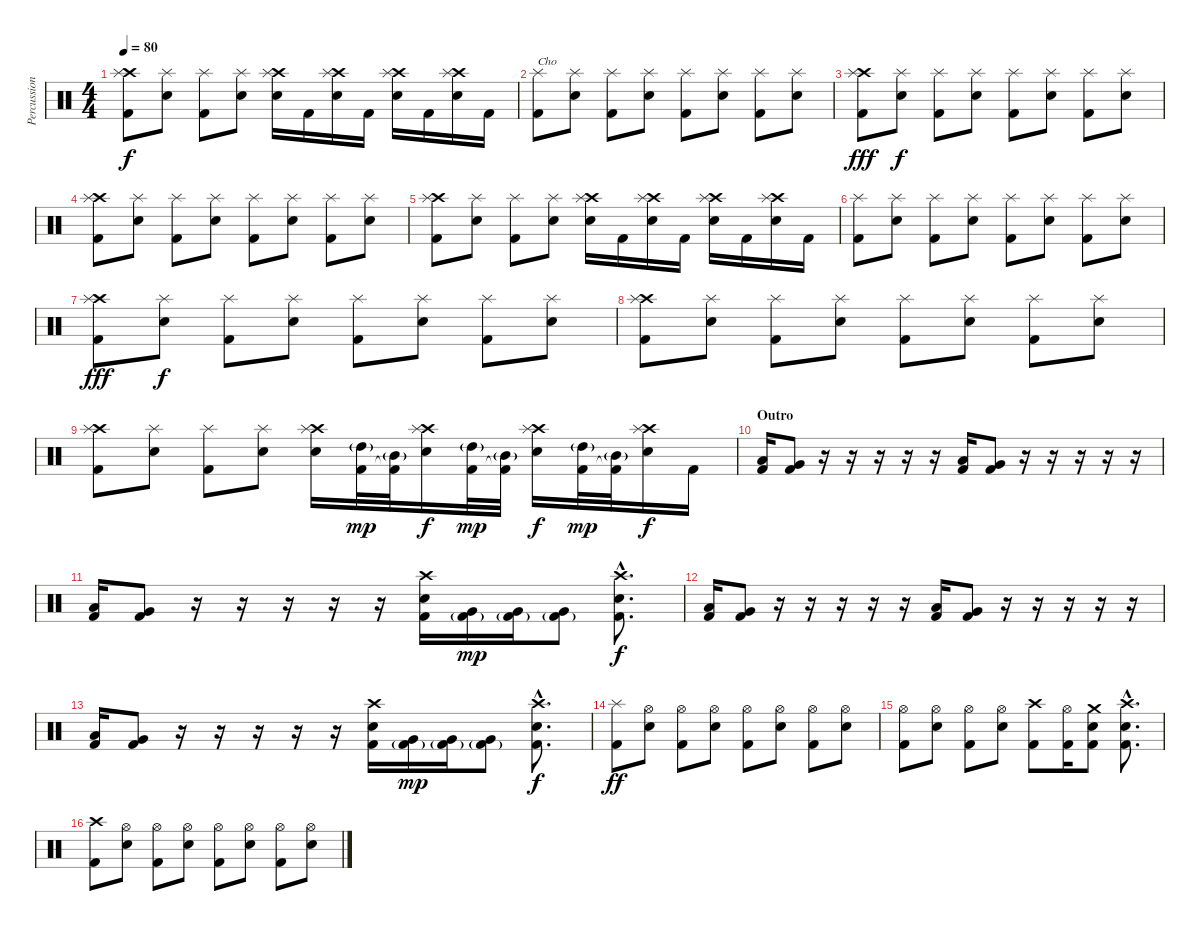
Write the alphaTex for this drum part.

\track ("Percussion" "Percussion") {instrument percussion}
\staff {score}
\articulation defaults
\ts (4 4)
\tempo 80
\clef neutral
\ks c
("Crash high (hit)" "Kick (hit) 2" "Splash (hit)").8{dy f} ("Snare (hit) 2" "Splash (hit)").8 ("Kick (hit) 2" "Splash (hit)").8 ("Snare (hit) 2" "Splash (hit)").8 ("Crash high (hit)" "Snare (hit) 2" "Splash (hit)").16 "Kick (hit) 2".16 ("Crash high (hit)" "Snare (hit) 2" "Splash (hit)").16 "Kick (hit) 2".16 ("Crash high (hit)" "Snare (hit) 2" "Splash (hit)").16 "Kick (hit) 2".16 ("Crash high (hit)" "Snare (hit) 2" "Splash (hit)").16 "Kick (hit) 2".16 |
("Kick (hit) 2" "Splash (hit)").8{txt "Cho"} ("Snare (hit) 2" "Splash (hit)").8 ("Kick (hit) 2" "Splash (hit)").8 ("Snare (hit) 2" "Splash (hit)").8 ("Kick (hit) 2" "Splash (hit)").8 ("Snare (hit) 2" "Splash (hit)").8 ("Kick (hit) 2" "Splash (hit)").8 ("Snare (hit) 2" "Splash (hit)").8 |
("Crash high (hit)" "Kick (hit) 2" "Splash (hit)").8{dy fff} ("Snare (hit) 2" "Splash (hit)").8{dy f} ("Kick (hit) 2" "Splash (hit)").8 ("Snare (hit) 2" "Splash (hit)").8 ("Kick (hit) 2" "Splash (hit)").8 ("Snare (hit) 2" "Splash (hit)").8 ("Kick (hit) 2" "Splash (hit)").8 ("Snare (hit) 2" "Splash (hit)").8 |
("Crash high (hit)" "Kick (hit) 2" "Splash (hit)").8 ("Snare (hit) 2" "Splash (hit)").8 ("Kick (hit) 2" "Splash (hit)").8 ("Snare (hit) 2" "Splash (hit)").8 ("Kick (hit) 2" "Splash (hit)").8 ("Snare (hit) 2" "Splash (hit)").8 ("Kick (hit) 2" "Splash (hit)").8 ("Snare (hit) 2" "Splash (hit)").8 |
("Crash high (hit)" "Kick (hit) 2" "Splash (hit)").8 ("Snare (hit) 2" "Splash (hit)").8 ("Kick (hit) 2" "Splash (hit)").8 ("Snare (hit) 2" "Splash (hit)").8 ("Crash high (hit)" "Snare (hit) 2" "Splash (hit)").16 "Kick (hit) 2".16 ("Crash high (hit)" "Snare (hit) 2" "Splash (hit)").16 "Kick (hit) 2".16 ("Crash high (hit)" "Snare (hit) 2" "Splash (hit)").16 "Kick (hit) 2".16 ("Crash high (hit)" "Snare (hit) 2" "Splash (hit)").16 "Kick (hit) 2".16 |
("Kick (hit) 2" "Splash (hit)").8 ("Snare (hit) 2" "Splash (hit)").8 ("Kick (hit) 2" "Splash (hit)").8 ("Snare (hit) 2" "Splash (hit)").8 ("Kick (hit) 2" "Splash (hit)").8 ("Snare (hit) 2" "Splash (hit)").8 ("Kick (hit) 2" "Splash (hit)").8 ("Snare (hit) 2" "Splash (hit)").8 |
("Crash high (hit)" "Kick (hit) 2" "Splash (hit)").8{dy fff} ("Snare (hit) 2" "Splash (hit)").8{dy f} ("Kick (hit) 2" "Splash (hit)").8 ("Snare (hit) 2" "Splash (hit)").8 ("Kick (hit) 2" "Splash (hit)").8 ("Snare (hit) 2" "Splash (hit)").8 ("Kick (hit) 2" "Splash (hit)").8 ("Snare (hit) 2" "Splash (hit)").8 |
("Crash high (hit)" "Kick (hit) 2" "Splash (hit)").8 ("Snare (hit) 2" "Splash (hit)").8 ("Kick (hit) 2" "Splash (hit)").8 ("Snare (hit) 2" "Splash (hit)").8 ("Kick (hit) 2" "Splash (hit)").8 ("Snare (hit) 2" "Splash (hit)").8 ("Kick (hit) 2" "Splash (hit)").8 ("Snare (hit) 2" "Splash (hit)").8 |
("Crash high (hit)" "Kick (hit) 2" "Splash (hit)").8 ("Snare (hit) 2" "Splash (hit)").8 ("Kick (hit) 2" "Splash (hit)").8 ("Snare (hit) 2" "Splash (hit)").8 ("Crash high (hit)" "Snare (hit) 2" "Splash (hit)").16 ("High Tom (hit)"{g} "Kick (hit) 2").32{dy mp} ("Mid Tom (hit)"{g} "Kick (hit) 2"{t}).32 ("Crash high (hit)" "Snare (hit) 2" "Splash (hit)").16{dy f} ("High Tom (hit)"{g} "Kick (hit) 2").32{dy mp} ("Mid Tom (hit)"{g} "Kick (hit) 2"{t}).32 ("Crash high (hit)" "Snare (hit) 2" "Splash (hit)").16{dy f} ("High Tom (hit)"{g} "Kick (hit) 2").32{dy mp} ("Mid Tom (hit)"{g} "Kick (hit) 2"{t}).32 ("Crash high (hit)" "Snare (hit) 2" "Splash (hit)").16{dy f} "Kick (hit) 2".16 |
\section ("" "Outro")
("Low Tom (hit)" "Kick (hit) 2").16 ("Very Low Tom (hit)" "Kick (hit) 2").8 r.16 r.16 r.16 r.16 r.16 ("Low Tom (hit)" "Kick (hit) 2").16 ("Very Low Tom (hit)" "Kick (hit) 2").8 r.16 r.16 r.16 r.16 r.16 |
("Low Tom (hit)" "Kick (hit) 2").16 ("Very Low Tom (hit)" "Kick (hit) 2").8 r.16 r.16 r.16 r.16 r.16 ("Crash high (hit)" "Snare (hit) 2" "Kick (hit) 2").16 ("Very Low Tom (hit)" "Kick (hit) 2"{g}).16{dy mp} ("Very Low Tom (hit)" "Kick (hit) 2"{g}).16 ("Very Low Tom (hit)" "Kick (hit) 2"{g}).8 ("Crash high (hit)"{hac} "Snare (hit) 2"{hac} "Kick (hit) 2"{hac}).8{d dy f} |
("Low Tom (hit)" "Kick (hit) 2").16 ("Very Low Tom (hit)" "Kick (hit) 2").8 r.16 r.16 r.16 r.16 r.16 ("Low Tom (hit)" "Kick (hit) 2").16 ("Very Low Tom (hit)" "Kick (hit) 2").8 r.16 r.16 r.16 r.16 r.16 |
("Low Tom (hit)" "Kick (hit) 2").16 ("Very Low Tom (hit)" "Kick (hit) 2").8 r.16 r.16 r.16 r.16 r.16 ("Crash high (hit)" "Snare (hit) 2" "Kick (hit) 2").16 ("Very Low Tom (hit)" "Kick (hit) 2"{g}).16{dy mp} ("Very Low Tom (hit)" "Kick (hit) 2"{g}).16 ("Very Low Tom (hit)" "Kick (hit) 2"{g}).8 ("Crash high (hit)"{hac} "Snare (hit) 2"{hac} "Kick (hit) 2"{hac}).8{d dy f} |
("Splash (hit)" "Kick (hit) 2").8{dy ff} ("Hi-Hat (open)" "Snare (hit) 2").8 ("Hi-Hat (open)" "Kick (hit) 2").8 ("Hi-Hat (open)" "Snare (hit) 2").8 ("Hi-Hat (open)" "Kick (hit) 2").8 ("Hi-Hat (open)" "Snare (hit) 2").8 ("Hi-Hat (open)" "Kick (hit) 2").8 ("Hi-Hat (open)" "Snare (hit) 2").8 |
("Hi-Hat (open)" "Kick (hit) 2").8 ("Hi-Hat (open)" "Snare (hit) 2").8 ("Hi-Hat (open)" "Kick (hit) 2").8 ("Hi-Hat (open)" "Snare (hit) 2").8 ("Crash high (hit)" "Kick (hit) 2").8 ("Hi-Hat (open)" "Kick (hit) 2").16 ("Crash medium (hit)" "Snare (hit) 2" "Kick (hit) 2").8 ("Crash high (hit)"{hac} "Snare (hit) 2"{hac} "Kick (hit) 2"{hac}).8{d} |
("Crash high (hit)" "Kick (hit) 2").8 ("Hi-Hat (open)" "Snare (hit) 2").8 ("Hi-Hat (open)" "Kick (hit) 2").8 ("Hi-Hat (open)" "Snare (hit) 2").8 ("Hi-Hat (open)" "Kick (hit) 2").8 ("Hi-Hat (open)" "Snare (hit) 2").8 ("Hi-Hat (open)" "Kick (hit) 2").8 ("Hi-Hat (open)" "Snare (hit) 2").8
